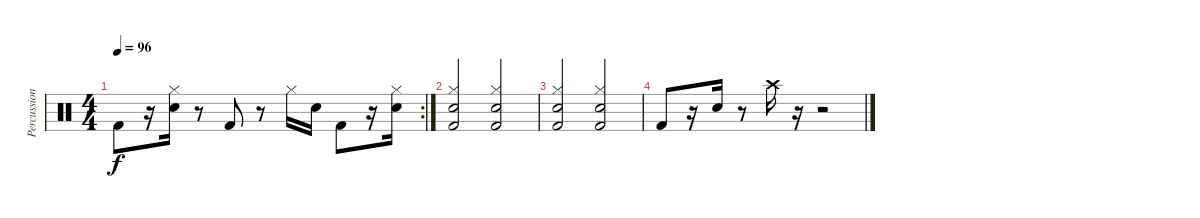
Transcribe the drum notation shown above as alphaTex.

\track ("Percussion" "Percussion") {instrument percussion}
\staff {score}
\articulation defaults
\rc 2
\ts (4 4)
\tempo 96
\clef neutral
\ks c "Kick (hit) 2".8{dy f}
r.16 ("Hi-Hat (closed)" "Snare (hit) 2").16 r.8 "Kick (hit) 2".8 r.8 "Hi-Hat (closed)".16 "Snare (hit) 2".16 "Kick (hit) 2".8 r.16 ("Hi-Hat (closed)" "Snare (hit) 2").16 |
("Hi-Hat (closed)" "Snare (hit) 2" "Kick (hit) 2").2 ("Hi-Hat (closed)" "Snare (hit) 2" "Kick (hit) 2").2 |
("Hi-Hat (closed)" "Snare (hit) 2" "Kick (hit) 2").2 ("Hi-Hat (closed)" "Snare (hit) 2" "Kick (hit) 2").2 |
"Kick (hit) 2".8 r.16 "Snare (hit) 2".16 r.8 "Crash high (hit)".16 r.16 r.2
